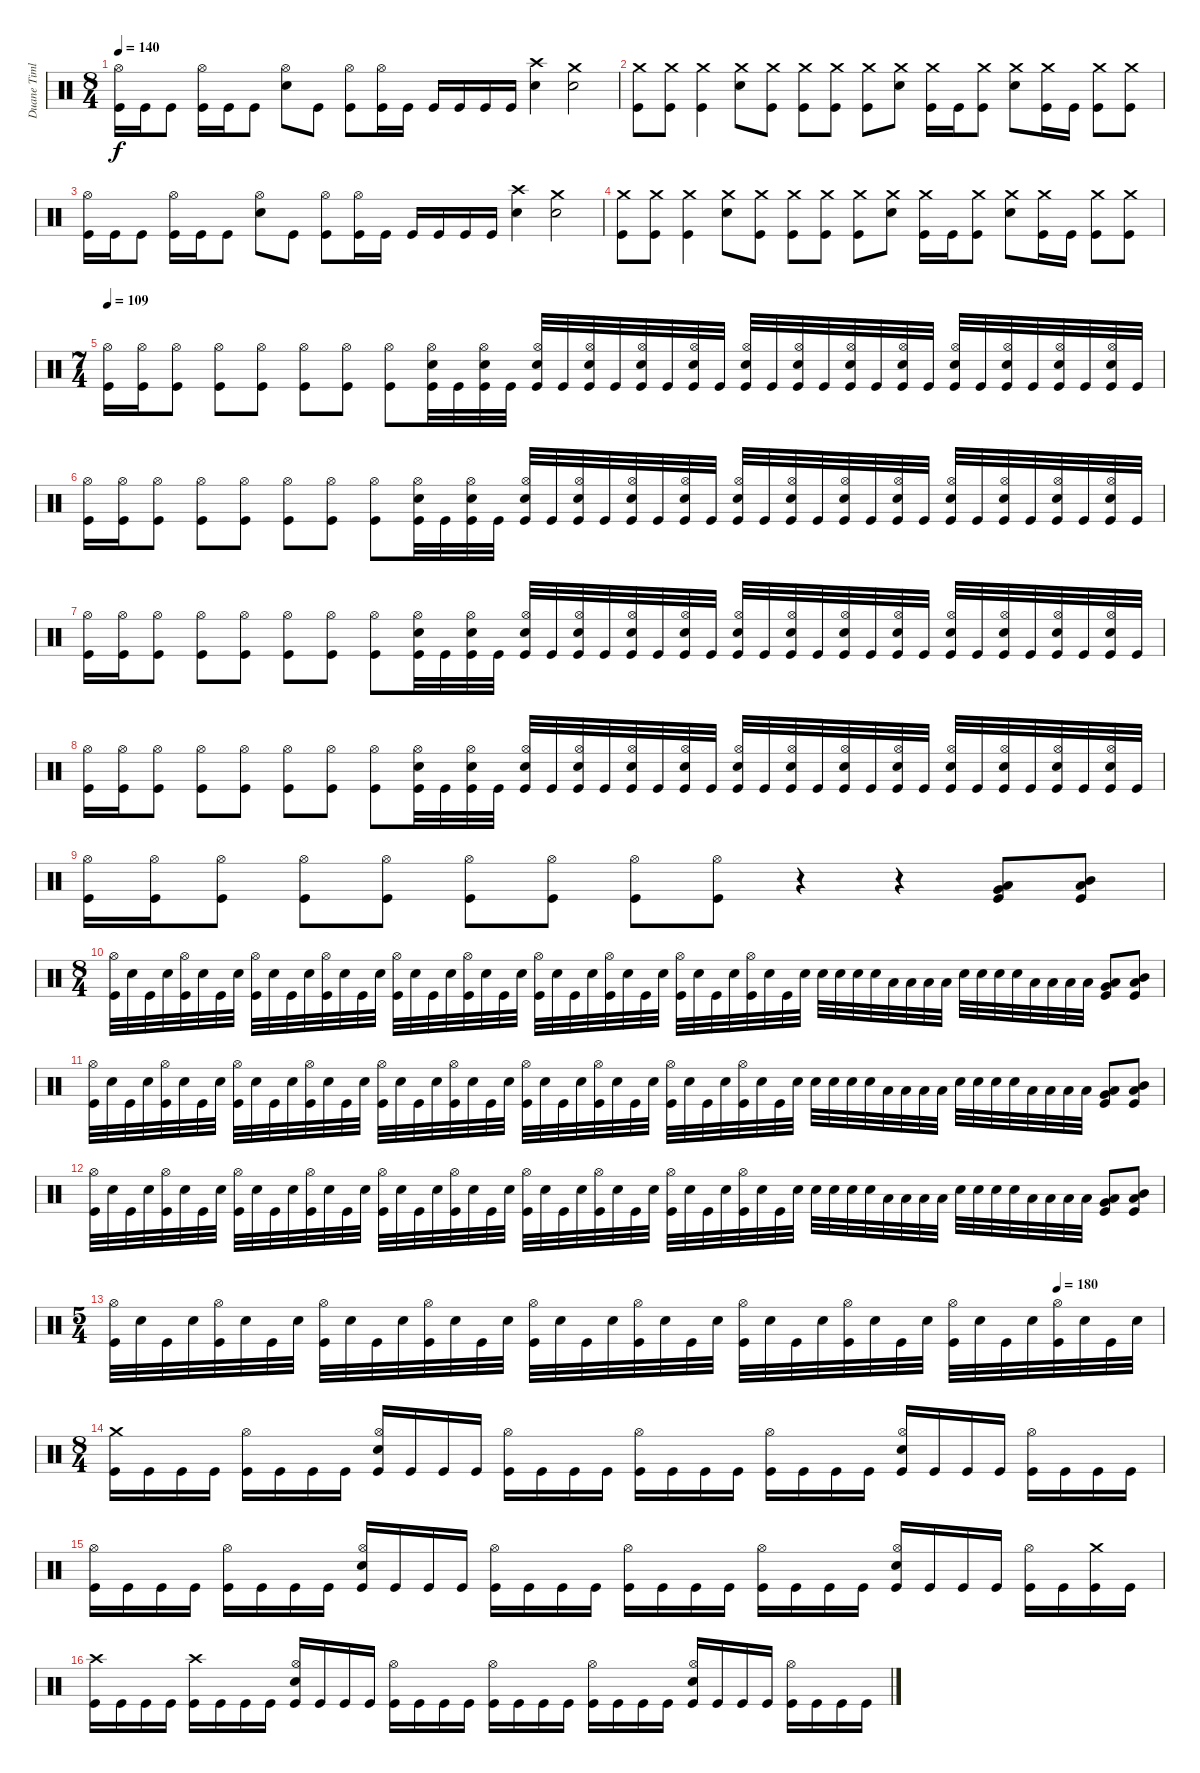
\track ("Duane Timlin" "Duane Timl") {instrument percussion}
\staff {score}
\articulation defaults
\ts (8 4)
\tempo 140
\clef neutral
\ks c
("Kick (hit)" "Hi-Hat (open)").16{dy f} "Kick (hit)".16 "Kick (hit)".8 ("Kick (hit)" "Hi-Hat (open)").16 "Kick (hit)".16 "Kick (hit)".8 ("Snare (hit) 2" "Hi-Hat (open)").8 "Kick (hit)".8 ("Kick (hit)" "Hi-Hat (open)").8 ("Kick (hit)" "Hi-Hat (open)").16 "Kick (hit)".16 "Kick (hit)".16 "Kick (hit)".16 "Kick (hit)".16 "Kick (hit)".16 ("Snare (hit) 2" "Crash high (hit)").4 ("Snare (hit) 2" "Crash medium (hit)").2 |
("Kick (hit)" "Crash medium (hit)").8 ("Kick (hit)" "Crash medium (hit)").8 ("Kick (hit)" "Crash medium (hit)").4 ("Snare (hit) 2" "Crash medium (hit)").8 ("Kick (hit)" "Crash medium (hit)").8 ("Kick (hit)" "Crash medium (hit)").8 ("Kick (hit)" "Crash medium (hit)").8 ("Kick (hit)" "Crash medium (hit)").8 ("Snare (hit) 2" "Crash medium (hit)").8 ("Kick (hit)" "Crash medium (hit)").16 "Kick (hit)".16 ("Kick (hit)" "Crash medium (hit)").8 ("Snare (hit) 2" "Crash medium (hit)").8 ("Kick (hit)" "Crash medium (hit)").16 "Kick (hit)".16 ("Kick (hit)" "Crash medium (hit)").8 ("Kick (hit)" "Crash medium (hit)").8 |
("Kick (hit)" "Hi-Hat (open)").16 "Kick (hit)".16 "Kick (hit)".8 ("Kick (hit)" "Hi-Hat (open)").16 "Kick (hit)".16 "Kick (hit)".8 ("Snare (hit) 2" "Hi-Hat (open)").8 "Kick (hit)".8 ("Kick (hit)" "Hi-Hat (open)").8 ("Kick (hit)" "Hi-Hat (open)").16 "Kick (hit)".16 "Kick (hit)".16 "Kick (hit)".16 "Kick (hit)".16 "Kick (hit)".16 ("Snare (hit) 2" "Crash high (hit)").4 ("Snare (hit) 2" "Crash medium (hit)").2 |
("Kick (hit)" "Crash medium (hit)").8 ("Kick (hit)" "Crash medium (hit)").8 ("Kick (hit)" "Crash medium (hit)").4 ("Snare (hit) 2" "Crash medium (hit)").8 ("Kick (hit)" "Crash medium (hit)").8 ("Kick (hit)" "Crash medium (hit)").8 ("Kick (hit)" "Crash medium (hit)").8 ("Kick (hit)" "Crash medium (hit)").8 ("Snare (hit) 2" "Crash medium (hit)").8 ("Kick (hit)" "Crash medium (hit)").16 "Kick (hit)".16 ("Kick (hit)" "Crash medium (hit)").8 ("Snare (hit) 2" "Crash medium (hit)").8 ("Kick (hit)" "Crash medium (hit)").16 "Kick (hit)".16 ("Kick (hit)" "Crash medium (hit)").8 ("Kick (hit)" "Crash medium (hit)").8 |
\ts (7 4)
\section ("" "")
\tempo 109
("Kick (hit)" "Hi-Hat (open)").16 ("Kick (hit)" "Hi-Hat (open)").16 ("Kick (hit)" "Hi-Hat (open)").8 ("Kick (hit)" "Hi-Hat (open)").8 ("Kick (hit)" "Hi-Hat (open)").8 ("Kick (hit)" "Hi-Hat (open)").8 ("Kick (hit)" "Hi-Hat (open)").8 ("Kick (hit)" "Hi-Hat (open)").8 ("Kick (hit)" "Snare (hit) 2" "Hi-Hat (open)").32 "Kick (hit)".32 ("Kick (hit)" "Snare (hit) 2" "Hi-Hat (open)").32 "Kick (hit)".32 ("Kick (hit)" "Snare (hit) 2" "Hi-Hat (open)").32 "Kick (hit)".32 ("Kick (hit)" "Snare (hit) 2" "Hi-Hat (open)").32 "Kick (hit)".32 ("Kick (hit)" "Snare (hit) 2" "Hi-Hat (open)").32 "Kick (hit)".32 ("Kick (hit)" "Snare (hit) 2" "Hi-Hat (open)").32 "Kick (hit)".32 ("Kick (hit)" "Snare (hit) 2" "Hi-Hat (open)").32 "Kick (hit)".32 ("Kick (hit)" "Snare (hit) 2" "Hi-Hat (open)").32 "Kick (hit)".32 ("Kick (hit)" "Snare (hit) 2" "Hi-Hat (open)").32 "Kick (hit)".32 ("Kick (hit)" "Snare (hit) 2" "Hi-Hat (open)").32 "Kick (hit)".32 ("Kick (hit)" "Snare (hit) 2" "Hi-Hat (open)").32 "Kick (hit)".32 ("Kick (hit)" "Snare (hit) 2" "Hi-Hat (open)").32 "Kick (hit)".32 ("Kick (hit)" "Snare (hit) 2" "Hi-Hat (open)").32 "Kick (hit)".32 ("Kick (hit)" "Snare (hit) 2" "Hi-Hat (open)").32 "Kick (hit)".32 |
("Kick (hit)" "Hi-Hat (open)").16 ("Kick (hit)" "Hi-Hat (open)").16 ("Kick (hit)" "Hi-Hat (open)").8 ("Kick (hit)" "Hi-Hat (open)").8 ("Kick (hit)" "Hi-Hat (open)").8 ("Kick (hit)" "Hi-Hat (open)").8 ("Kick (hit)" "Hi-Hat (open)").8 ("Kick (hit)" "Hi-Hat (open)").8 ("Kick (hit)" "Snare (hit) 2" "Hi-Hat (open)").32 "Kick (hit)".32 ("Kick (hit)" "Snare (hit) 2" "Hi-Hat (open)").32 "Kick (hit)".32 ("Kick (hit)" "Snare (hit) 2" "Hi-Hat (open)").32 "Kick (hit)".32 ("Kick (hit)" "Snare (hit) 2" "Hi-Hat (open)").32 "Kick (hit)".32 ("Kick (hit)" "Snare (hit) 2" "Hi-Hat (open)").32 "Kick (hit)".32 ("Kick (hit)" "Snare (hit) 2" "Hi-Hat (open)").32 "Kick (hit)".32 ("Kick (hit)" "Snare (hit) 2" "Hi-Hat (open)").32 "Kick (hit)".32 ("Kick (hit)" "Snare (hit) 2" "Hi-Hat (open)").32 "Kick (hit)".32 ("Kick (hit)" "Snare (hit) 2" "Hi-Hat (open)").32 "Kick (hit)".32 ("Kick (hit)" "Snare (hit) 2" "Hi-Hat (open)").32 "Kick (hit)".32 ("Kick (hit)" "Snare (hit) 2" "Hi-Hat (open)").32 "Kick (hit)".32 ("Kick (hit)" "Snare (hit) 2" "Hi-Hat (open)").32 "Kick (hit)".32 ("Kick (hit)" "Snare (hit) 2" "Hi-Hat (open)").32 "Kick (hit)".32 ("Kick (hit)" "Snare (hit) 2" "Hi-Hat (open)").32 "Kick (hit)".32 |
("Kick (hit)" "Hi-Hat (open)").16 ("Kick (hit)" "Hi-Hat (open)").16 ("Kick (hit)" "Hi-Hat (open)").8 ("Kick (hit)" "Hi-Hat (open)").8 ("Kick (hit)" "Hi-Hat (open)").8 ("Kick (hit)" "Hi-Hat (open)").8 ("Kick (hit)" "Hi-Hat (open)").8 ("Kick (hit)" "Hi-Hat (open)").8 ("Kick (hit)" "Snare (hit) 2" "Hi-Hat (open)").32 "Kick (hit)".32 ("Kick (hit)" "Snare (hit) 2" "Hi-Hat (open)").32 "Kick (hit)".32 ("Kick (hit)" "Snare (hit) 2" "Hi-Hat (open)").32 "Kick (hit)".32 ("Kick (hit)" "Snare (hit) 2" "Hi-Hat (open)").32 "Kick (hit)".32 ("Kick (hit)" "Snare (hit) 2" "Hi-Hat (open)").32 "Kick (hit)".32 ("Kick (hit)" "Snare (hit) 2" "Hi-Hat (open)").32 "Kick (hit)".32 ("Kick (hit)" "Snare (hit) 2" "Hi-Hat (open)").32 "Kick (hit)".32 ("Kick (hit)" "Snare (hit) 2" "Hi-Hat (open)").32 "Kick (hit)".32 ("Kick (hit)" "Snare (hit) 2" "Hi-Hat (open)").32 "Kick (hit)".32 ("Kick (hit)" "Snare (hit) 2" "Hi-Hat (open)").32 "Kick (hit)".32 ("Kick (hit)" "Snare (hit) 2" "Hi-Hat (open)").32 "Kick (hit)".32 ("Kick (hit)" "Snare (hit) 2" "Hi-Hat (open)").32 "Kick (hit)".32 ("Kick (hit)" "Snare (hit) 2" "Hi-Hat (open)").32 "Kick (hit)".32 ("Kick (hit)" "Snare (hit) 2" "Hi-Hat (open)").32 "Kick (hit)".32 |
("Kick (hit)" "Hi-Hat (open)").16 ("Kick (hit)" "Hi-Hat (open)").16 ("Kick (hit)" "Hi-Hat (open)").8 ("Kick (hit)" "Hi-Hat (open)").8 ("Kick (hit)" "Hi-Hat (open)").8 ("Kick (hit)" "Hi-Hat (open)").8 ("Kick (hit)" "Hi-Hat (open)").8 ("Kick (hit)" "Hi-Hat (open)").8 ("Kick (hit)" "Snare (hit) 2" "Hi-Hat (open)").32 "Kick (hit)".32 ("Kick (hit)" "Snare (hit) 2" "Hi-Hat (open)").32 "Kick (hit)".32 ("Kick (hit)" "Snare (hit) 2" "Hi-Hat (open)").32 "Kick (hit)".32 ("Kick (hit)" "Snare (hit) 2" "Hi-Hat (open)").32 "Kick (hit)".32 ("Kick (hit)" "Snare (hit) 2" "Hi-Hat (open)").32 "Kick (hit)".32 ("Kick (hit)" "Snare (hit) 2" "Hi-Hat (open)").32 "Kick (hit)".32 ("Kick (hit)" "Snare (hit) 2" "Hi-Hat (open)").32 "Kick (hit)".32 ("Kick (hit)" "Snare (hit) 2" "Hi-Hat (open)").32 "Kick (hit)".32 ("Kick (hit)" "Snare (hit) 2" "Hi-Hat (open)").32 "Kick (hit)".32 ("Kick (hit)" "Snare (hit) 2" "Hi-Hat (open)").32 "Kick (hit)".32 ("Kick (hit)" "Snare (hit) 2" "Hi-Hat (open)").32 "Kick (hit)".32 ("Kick (hit)" "Snare (hit) 2" "Hi-Hat (open)").32 "Kick (hit)".32 ("Kick (hit)" "Snare (hit) 2" "Hi-Hat (open)").32 "Kick (hit)".32 ("Kick (hit)" "Snare (hit) 2" "Hi-Hat (open)").32 "Kick (hit)".32 |
\section ("" "")
("Kick (hit)" "Hi-Hat (open)").16 ("Kick (hit)" "Hi-Hat (open)").16 ("Kick (hit)" "Hi-Hat (open)").8 ("Kick (hit)" "Hi-Hat (open)").8 ("Kick (hit)" "Hi-Hat (open)").8 ("Kick (hit)" "Hi-Hat (open)").8 ("Kick (hit)" "Hi-Hat (open)").8 ("Kick (hit)" "Hi-Hat (open)").8 ("Kick (hit)" "Hi-Hat (open)").8 r.4 r.4 ("Kick (hit)" "Low Tom (hit)" "Very Low Tom (hit)").8 ("Kick (hit)" "Mid Tom (hit)" "Low Tom (hit)").8 |
\ts (8 4)
("Kick (hit)" "Hi-Hat (open)").32 "Snare (hit) 2".32 "Kick (hit)".32 "Snare (hit) 2".32 ("Kick (hit)" "Hi-Hat (open)").32 "Snare (hit) 2".32 "Kick (hit)".32 "Snare (hit) 2".32 ("Kick (hit)" "Hi-Hat (open)").32 "Snare (hit) 2".32 "Kick (hit)".32 "Snare (hit) 2".32 ("Kick (hit)" "Hi-Hat (open)").32 "Snare (hit) 2".32 "Kick (hit)".32 "Snare (hit) 2".32 ("Kick (hit)" "Hi-Hat (open)").32 "Snare (hit) 2".32 "Kick (hit)".32 "Snare (hit) 2".32 ("Kick (hit)" "Hi-Hat (open)").32 "Snare (hit) 2".32 "Kick (hit)".32 "Snare (hit) 2".32 ("Kick (hit)" "Hi-Hat (open)").32 "Snare (hit) 2".32 "Kick (hit)".32 "Snare (hit) 2".32 ("Kick (hit)" "Hi-Hat (open)").32 "Snare (hit) 2".32 "Kick (hit)".32 "Snare (hit) 2".32 ("Kick (hit)" "Hi-Hat (open)").32 "Snare (hit) 2".32 "Kick (hit)".32 "Snare (hit) 2".32 ("Kick (hit)" "Hi-Hat (open)").32 "Snare (hit) 2".32 "Kick (hit)".32 "Snare (hit) 2".32 "Snare (hit) 2".32 "Snare (hit) 2".32 "Snare (hit) 2".32 "Snare (hit) 2".32 "Low Tom (hit)".32 "Low Tom (hit)".32 "Low Tom (hit)".32 "Low Tom (hit)".32 "Snare (hit) 2".32 "Snare (hit) 2".32 "Snare (hit) 2".32 "Snare (hit) 2".32 "Low Tom (hit)".32 "Low Tom (hit)".32 "Low Tom (hit)".32 "Low Tom (hit)".32 ("Kick (hit)" "Low Tom (hit)" "Very Low Tom (hit)").8 ("Kick (hit)" "Mid Tom (hit)" "Low Tom (hit)").8 |
("Kick (hit)" "Hi-Hat (open)").32 "Snare (hit) 2".32 "Kick (hit)".32 "Snare (hit) 2".32 ("Kick (hit)" "Hi-Hat (open)").32 "Snare (hit) 2".32 "Kick (hit)".32 "Snare (hit) 2".32 ("Kick (hit)" "Hi-Hat (open)").32 "Snare (hit) 2".32 "Kick (hit)".32 "Snare (hit) 2".32 ("Kick (hit)" "Hi-Hat (open)").32 "Snare (hit) 2".32 "Kick (hit)".32 "Snare (hit) 2".32 ("Kick (hit)" "Hi-Hat (open)").32 "Snare (hit) 2".32 "Kick (hit)".32 "Snare (hit) 2".32 ("Kick (hit)" "Hi-Hat (open)").32 "Snare (hit) 2".32 "Kick (hit)".32 "Snare (hit) 2".32 ("Kick (hit)" "Hi-Hat (open)").32 "Snare (hit) 2".32 "Kick (hit)".32 "Snare (hit) 2".32 ("Kick (hit)" "Hi-Hat (open)").32 "Snare (hit) 2".32 "Kick (hit)".32 "Snare (hit) 2".32 ("Kick (hit)" "Hi-Hat (open)").32 "Snare (hit) 2".32 "Kick (hit)".32 "Snare (hit) 2".32 ("Kick (hit)" "Hi-Hat (open)").32 "Snare (hit) 2".32 "Kick (hit)".32 "Snare (hit) 2".32 "Snare (hit) 2".32 "Snare (hit) 2".32 "Snare (hit) 2".32 "Snare (hit) 2".32 "Low Tom (hit)".32 "Low Tom (hit)".32 "Low Tom (hit)".32 "Low Tom (hit)".32 "Snare (hit) 2".32 "Snare (hit) 2".32 "Snare (hit) 2".32 "Snare (hit) 2".32 "Low Tom (hit)".32 "Low Tom (hit)".32 "Low Tom (hit)".32 "Low Tom (hit)".32 ("Kick (hit)" "Low Tom (hit)" "Very Low Tom (hit)").8 ("Kick (hit)" "Mid Tom (hit)" "Low Tom (hit)").8 |
("Kick (hit)" "Hi-Hat (open)").32 "Snare (hit) 2".32 "Kick (hit)".32 "Snare (hit) 2".32 ("Kick (hit)" "Hi-Hat (open)").32 "Snare (hit) 2".32 "Kick (hit)".32 "Snare (hit) 2".32 ("Kick (hit)" "Hi-Hat (open)").32 "Snare (hit) 2".32 "Kick (hit)".32 "Snare (hit) 2".32 ("Kick (hit)" "Hi-Hat (open)").32 "Snare (hit) 2".32 "Kick (hit)".32 "Snare (hit) 2".32 ("Kick (hit)" "Hi-Hat (open)").32 "Snare (hit) 2".32 "Kick (hit)".32 "Snare (hit) 2".32 ("Kick (hit)" "Hi-Hat (open)").32 "Snare (hit) 2".32 "Kick (hit)".32 "Snare (hit) 2".32 ("Kick (hit)" "Hi-Hat (open)").32 "Snare (hit) 2".32 "Kick (hit)".32 "Snare (hit) 2".32 ("Kick (hit)" "Hi-Hat (open)").32 "Snare (hit) 2".32 "Kick (hit)".32 "Snare (hit) 2".32 ("Kick (hit)" "Hi-Hat (open)").32 "Snare (hit) 2".32 "Kick (hit)".32 "Snare (hit) 2".32 ("Kick (hit)" "Hi-Hat (open)").32 "Snare (hit) 2".32 "Kick (hit)".32 "Snare (hit) 2".32 "Snare (hit) 2".32 "Snare (hit) 2".32 "Snare (hit) 2".32 "Snare (hit) 2".32 "Low Tom (hit)".32 "Low Tom (hit)".32 "Low Tom (hit)".32 "Low Tom (hit)".32 "Snare (hit) 2".32 "Snare (hit) 2".32 "Snare (hit) 2".32 "Snare (hit) 2".32 "Low Tom (hit)".32 "Low Tom (hit)".32 "Low Tom (hit)".32 "Low Tom (hit)".32 ("Kick (hit)" "Low Tom (hit)" "Very Low Tom (hit)").8 ("Kick (hit)" "Mid Tom (hit)" "Low Tom (hit)").8 |
\ts (5 4)
\tempo (180 0.9)
("Kick (hit)" "Hi-Hat (open)").32 "Snare (hit) 2".32 "Kick (hit)".32 "Snare (hit) 2".32 ("Kick (hit)" "Hi-Hat (open)").32 "Snare (hit) 2".32 "Kick (hit)".32 "Snare (hit) 2".32 ("Kick (hit)" "Hi-Hat (open)").32 "Snare (hit) 2".32 "Kick (hit)".32 "Snare (hit) 2".32 ("Kick (hit)" "Hi-Hat (open)").32 "Snare (hit) 2".32 "Kick (hit)".32 "Snare (hit) 2".32 ("Kick (hit)" "Hi-Hat (open)").32 "Snare (hit) 2".32 "Kick (hit)".32 "Snare (hit) 2".32 ("Kick (hit)" "Hi-Hat (open)").32 "Snare (hit) 2".32 "Kick (hit)".32 "Snare (hit) 2".32 ("Kick (hit)" "Hi-Hat (open)").32 "Snare (hit) 2".32 "Kick (hit)".32 "Snare (hit) 2".32 ("Kick (hit)" "Hi-Hat (open)").32 "Snare (hit) 2".32 "Kick (hit)".32 "Snare (hit) 2".32 ("Kick (hit)" "Hi-Hat (open)").32 "Snare (hit) 2".32 "Kick (hit)".32 "Snare (hit) 2".32 ("Kick (hit)" "Hi-Hat (open)").32 "Snare (hit) 2".32 "Kick (hit)".32 "Snare (hit) 2".32 |
\ts (8 4)
\section ("" "")
("Kick (hit)" "Crash medium (hit)").16 "Kick (hit)".16 "Kick (hit)".16 "Kick (hit)".16 ("Kick (hit)" "Hi-Hat (open)").16 "Kick (hit)".16 "Kick (hit)".16 "Kick (hit)".16 ("Kick (hit)" "Hi-Hat (open)" "Snare (hit) 2").16 "Kick (hit)".16 "Kick (hit)".16 "Kick (hit)".16 ("Kick (hit)" "Hi-Hat (open)").16 "Kick (hit)".16 "Kick (hit)".16 "Kick (hit)".16 ("Kick (hit)" "Hi-Hat (open)").16 "Kick (hit)".16 "Kick (hit)".16 "Kick (hit)".16 ("Kick (hit)" "Hi-Hat (open)").16 "Kick (hit)".16 "Kick (hit)".16 "Kick (hit)".16 ("Kick (hit)" "Hi-Hat (open)" "Snare (hit) 2").16 "Kick (hit)".16 "Kick (hit)".16 "Kick (hit)".16 ("Kick (hit)" "Hi-Hat (open)").16 "Kick (hit)".16 "Kick (hit)".16 "Kick (hit)".16 |
("Kick (hit)" "Hi-Hat (open)").16 "Kick (hit)".16 "Kick (hit)".16 "Kick (hit)".16 ("Kick (hit)" "Hi-Hat (open)").16 "Kick (hit)".16 "Kick (hit)".16 "Kick (hit)".16 ("Kick (hit)" "Hi-Hat (open)" "Snare (hit) 2").16 "Kick (hit)".16 "Kick (hit)".16 "Kick (hit)".16 ("Kick (hit)" "Hi-Hat (open)").16 "Kick (hit)".16 "Kick (hit)".16 "Kick (hit)".16 ("Kick (hit)" "Hi-Hat (open)").16 "Kick (hit)".16 "Kick (hit)".16 "Kick (hit)".16 ("Kick (hit)" "Hi-Hat (open)").16 "Kick (hit)".16 "Kick (hit)".16 "Kick (hit)".16 ("Kick (hit)" "Hi-Hat (open)" "Snare (hit) 2").16 "Kick (hit)".16 "Kick (hit)".16 "Kick (hit)".16 ("Kick (hit)" "Hi-Hat (open)").16 "Kick (hit)".16 ("Kick (hit)" "Crash medium (hit)").16 "Kick (hit)".16 |
("Kick (hit)" "Crash high (hit)").16 "Kick (hit)".16 "Kick (hit)".16 "Kick (hit)".16 ("Kick (hit)" "Crash high (hit)").16 "Kick (hit)".16 "Kick (hit)".16 "Kick (hit)".16 ("Kick (hit)" "Hi-Hat (open)" "Snare (hit) 2").16 "Kick (hit)".16 "Kick (hit)".16 "Kick (hit)".16 ("Kick (hit)" "Hi-Hat (open)").16 "Kick (hit)".16 "Kick (hit)".16 "Kick (hit)".16 ("Kick (hit)" "Hi-Hat (open)").16 "Kick (hit)".16 "Kick (hit)".16 "Kick (hit)".16 ("Kick (hit)" "Hi-Hat (open)").16 "Kick (hit)".16 "Kick (hit)".16 "Kick (hit)".16 ("Kick (hit)" "Hi-Hat (open)" "Snare (hit) 2").16 "Kick (hit)".16 "Kick (hit)".16 "Kick (hit)".16 ("Kick (hit)" "Hi-Hat (open)").16 "Kick (hit)".16 "Kick (hit)".16 "Kick (hit)".16
